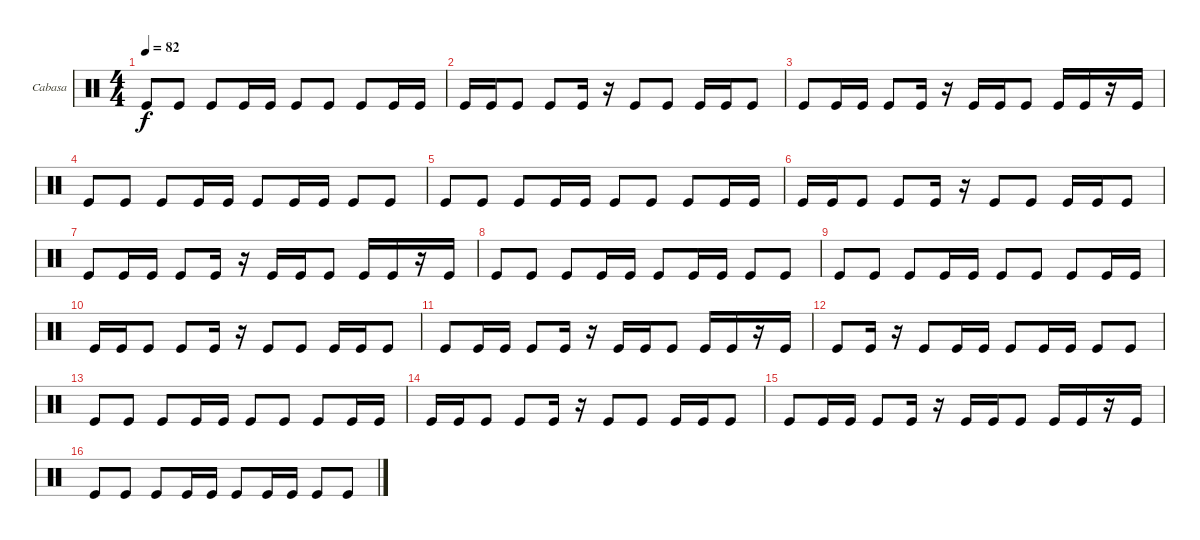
\bracketExtendMode groupsimilarinstruments
\firstSystemTrackNameOrientation horizontal
\otherSystemsTrackNameOrientation horizontal
\track ("Cabasa" "Cabasa") {instrument percussion}
\staff {score}
\articulation defaults
\ts (4 4)
\tempo 82
\clef neutral
\ks c "Kick (hit)".8{dy f} "Kick (hit)".8 "Kick (hit)".8 "Kick (hit)".16 "Kick (hit)".16 "Kick (hit)".8 "Kick (hit)".8 "Kick (hit)".8 "Kick (hit)".16 "Kick (hit)".16
|
"Kick (hit)".16 "Kick (hit)".16 "Kick (hit)".8 "Kick (hit)".8 "Kick (hit)".16 r.16 "Kick (hit)".8 "Kick (hit)".8 "Kick (hit)".16 "Kick (hit)".16 "Kick (hit)".8 |
"Kick (hit)".8 "Kick (hit)".16 "Kick (hit)".16 "Kick (hit)".8 "Kick (hit)".16 r.16 "Kick (hit)".16 "Kick (hit)".16 "Kick (hit)".8 "Kick (hit)".16 "Kick (hit)".16 r.16 "Kick (hit)".16 |
"Kick (hit)".8 "Kick (hit)".8 "Kick (hit)".8 "Kick (hit)".16 "Kick (hit)".16 "Kick (hit)".8 "Kick (hit)".16 "Kick (hit)".16 "Kick (hit)".8 "Kick (hit)".8 |
"Kick (hit)".8 "Kick (hit)".8 "Kick (hit)".8 "Kick (hit)".16 "Kick (hit)".16 "Kick (hit)".8 "Kick (hit)".8 "Kick (hit)".8 "Kick (hit)".16 "Kick (hit)".16 |
"Kick (hit)".16 "Kick (hit)".16 "Kick (hit)".8 "Kick (hit)".8 "Kick (hit)".16 r.16 "Kick (hit)".8 "Kick (hit)".8 "Kick (hit)".16 "Kick (hit)".16 "Kick (hit)".8 |
"Kick (hit)".8 "Kick (hit)".16 "Kick (hit)".16 "Kick (hit)".8 "Kick (hit)".16 r.16 "Kick (hit)".16 "Kick (hit)".16 "Kick (hit)".8 "Kick (hit)".16 "Kick (hit)".16 r.16 "Kick (hit)".16 |
"Kick (hit)".8 "Kick (hit)".8 "Kick (hit)".8 "Kick (hit)".16 "Kick (hit)".16 "Kick (hit)".8 "Kick (hit)".16 "Kick (hit)".16 "Kick (hit)".8 "Kick (hit)".8 |
"Kick (hit)".8 "Kick (hit)".8 "Kick (hit)".8 "Kick (hit)".16 "Kick (hit)".16 "Kick (hit)".8 "Kick (hit)".8 "Kick (hit)".8 "Kick (hit)".16 "Kick (hit)".16 |
"Kick (hit)".16 "Kick (hit)".16 "Kick (hit)".8 "Kick (hit)".8 "Kick (hit)".16 r.16 "Kick (hit)".8 "Kick (hit)".8 "Kick (hit)".16 "Kick (hit)".16 "Kick (hit)".8 |
"Kick (hit)".8 "Kick (hit)".16 "Kick (hit)".16 "Kick (hit)".8 "Kick (hit)".16 r.16 "Kick (hit)".16 "Kick (hit)".16 "Kick (hit)".8 "Kick (hit)".16 "Kick (hit)".16 r.16 "Kick (hit)".16 |
"Kick (hit)".8 "Kick (hit)".16 r.16 "Kick (hit)".8 "Kick (hit)".16 "Kick (hit)".16 "Kick (hit)".8 "Kick (hit)".16 "Kick (hit)".16 "Kick (hit)".8 "Kick (hit)".8 |
"Kick (hit)".8 "Kick (hit)".8 "Kick (hit)".8 "Kick (hit)".16 "Kick (hit)".16 "Kick (hit)".8 "Kick (hit)".8 "Kick (hit)".8 "Kick (hit)".16 "Kick (hit)".16 |
"Kick (hit)".16 "Kick (hit)".16 "Kick (hit)".8 "Kick (hit)".8 "Kick (hit)".16 r.16 "Kick (hit)".8 "Kick (hit)".8 "Kick (hit)".16 "Kick (hit)".16 "Kick (hit)".8 |
"Kick (hit)".8 "Kick (hit)".16 "Kick (hit)".16 "Kick (hit)".8 "Kick (hit)".16 r.16 "Kick (hit)".16 "Kick (hit)".16 "Kick (hit)".8 "Kick (hit)".16 "Kick (hit)".16 r.16 "Kick (hit)".16 |
"Kick (hit)".8 "Kick (hit)".8 "Kick (hit)".8 "Kick (hit)".16 "Kick (hit)".16 "Kick (hit)".8 "Kick (hit)".16 "Kick (hit)".16 "Kick (hit)".8 "Kick (hit)".8
